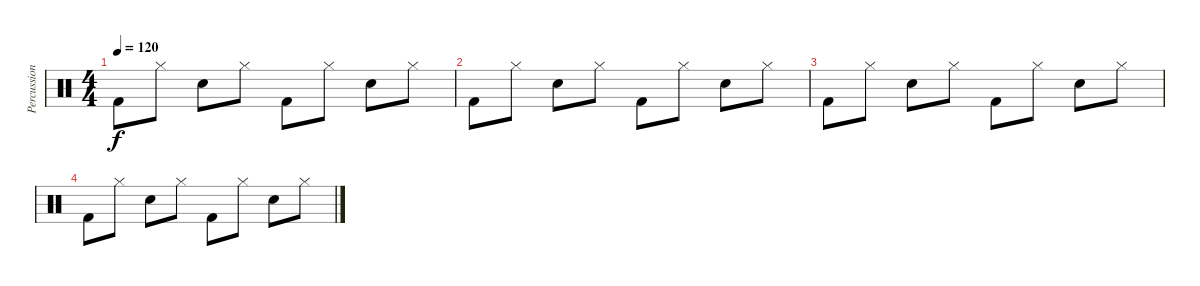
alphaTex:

\track ("Percussion" "Percussion") {instrument percussion}
\staff {score}
\articulation defaults
\ts (4 4)
\tempo 120
\clef neutral
\ks c "Kick (hit) 2".8{dy f} "Hi-Hat (closed)".8 "Snare (hit) 2".8 "Hi-Hat (closed)".8 "Kick (hit) 2".8 "Hi-Hat (closed)".8 "Snare (hit) 2".8 "Hi-Hat (closed)".8
|
"Kick (hit) 2".8 "Hi-Hat (closed)".8 "Snare (hit) 2".8 "Hi-Hat (closed)".8 "Kick (hit) 2".8 "Hi-Hat (closed)".8 "Snare (hit) 2".8 "Hi-Hat (closed)".8 |
"Kick (hit) 2".8 "Hi-Hat (closed)".8 "Snare (hit) 2".8 "Hi-Hat (closed)".8 "Kick (hit) 2".8 "Hi-Hat (closed)".8 "Snare (hit) 2".8 "Hi-Hat (closed)".8 |
"Kick (hit) 2".8 "Hi-Hat (closed)".8 "Snare (hit) 2".8 "Hi-Hat (closed)".8 "Kick (hit) 2".8 "Hi-Hat (closed)".8 "Snare (hit) 2".8 "Hi-Hat (closed)".8
